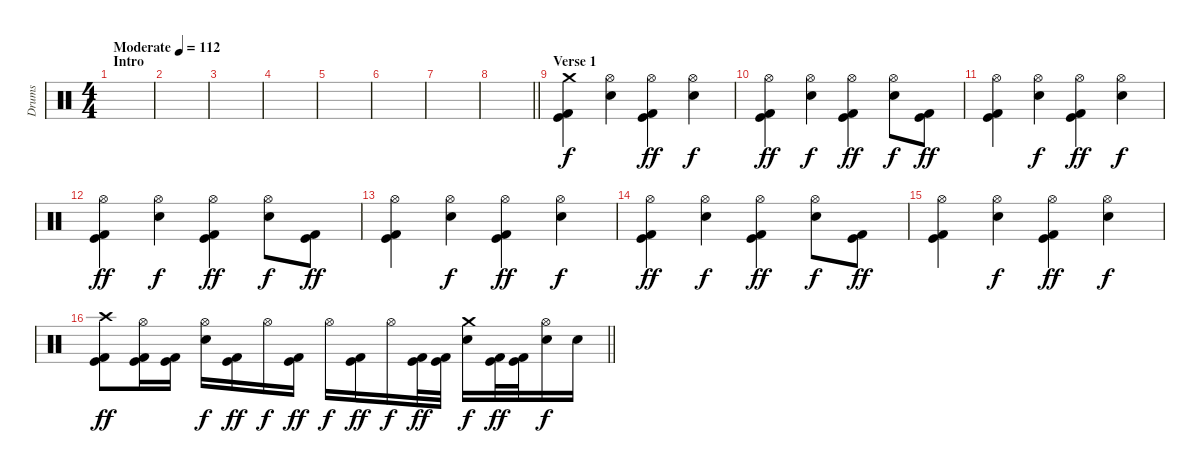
\track ("Drums" "Drums") {instrument percussion}
\staff {score}
\articulation defaults
\ts (4 4)
\section ("" "Intro")
\tempo (112 "Moderate")
\clef neutral
\ks c
|
|
|
|
|
|
|
\barLineRight lightlight
|
\section ("" "Verse 1")
("Crash medium (hit)" "Kick (hit)" "Kick (hit) 2").4 ("Hi-Hat (open)" "Snare (hit) 2").4{dy f} ("Hi-Hat (open)" "Kick (hit)" "Kick (hit) 2").4{dy ff} ("Hi-Hat (open)" "Snare (hit) 2").4{dy f} |
("Hi-Hat (open)" "Kick (hit)" "Kick (hit) 2").4{dy ff} ("Hi-Hat (open)" "Snare (hit) 2").4{dy f} ("Hi-Hat (open)" "Kick (hit)" "Kick (hit) 2").4{dy ff} ("Hi-Hat (open)" "Snare (hit) 2").8{dy f} ("Kick (hit)" "Kick (hit) 2").8{dy ff} |
("Hi-Hat (open)" "Kick (hit)" "Kick (hit) 2").4 ("Hi-Hat (open)" "Snare (hit) 2").4{dy f} ("Hi-Hat (open)" "Kick (hit)" "Kick (hit) 2").4{dy ff} ("Hi-Hat (open)" "Snare (hit) 2").4{dy f} |
("Hi-Hat (open)" "Kick (hit)" "Kick (hit) 2").4{dy ff} ("Hi-Hat (open)" "Snare (hit) 2").4{dy f} ("Hi-Hat (open)" "Kick (hit)" "Kick (hit) 2").4{dy ff} ("Hi-Hat (open)" "Snare (hit) 2").8{dy f} ("Kick (hit)" "Kick (hit) 2").8{dy ff} |
("Hi-Hat (open)" "Kick (hit)" "Kick (hit) 2").4 ("Hi-Hat (open)" "Snare (hit) 2").4{dy f} ("Hi-Hat (open)" "Kick (hit)" "Kick (hit) 2").4{dy ff} ("Hi-Hat (open)" "Snare (hit) 2").4{dy f} |
("Hi-Hat (open)" "Kick (hit)" "Kick (hit) 2").4{dy ff} ("Hi-Hat (open)" "Snare (hit) 2").4{dy f} ("Hi-Hat (open)" "Kick (hit)" "Kick (hit) 2").4{dy ff} ("Hi-Hat (open)" "Snare (hit) 2").8{dy f} ("Kick (hit)" "Kick (hit) 2").8{dy ff} |
("Hi-Hat (open)" "Kick (hit)" "Kick (hit) 2").4 ("Hi-Hat (open)" "Snare (hit) 2").4{dy f} ("Hi-Hat (open)" "Kick (hit)" "Kick (hit) 2").4{dy ff} ("Hi-Hat (open)" "Snare (hit) 2").4{dy f} |
\barLineRight lightlight
("Crash high (hit)" "Kick (hit)" "Kick (hit) 2").8{dy ff} ("Hi-Hat (open)" "Kick (hit)" "Kick (hit) 2").16 ("Kick (hit)" "Kick (hit) 2").16 ("Hi-Hat (open)" "Snare (hit) 2").16{dy f} ("Kick (hit)" "Kick (hit) 2").16{dy ff} "Hi-Hat (open)".16{dy f} ("Kick (hit)" "Kick (hit) 2").16{dy ff} "Hi-Hat (open)".16{dy f} ("Kick (hit)" "Kick (hit) 2").16{dy ff} "Hi-Hat (open)".16{dy f} ("Kick (hit)" "Kick (hit) 2").32{dy ff} ("Kick (hit)" "Kick (hit) 2").32 ("Crash medium (hit)" "Snare (hit) 2").16{dy f} ("Kick (hit)" "Kick (hit) 2").32{dy ff} ("Kick (hit)" "Kick (hit) 2").32 ("Hi-Hat (open)" "Snare (hit) 2").16{dy f} "Snare (hit) 2".16
